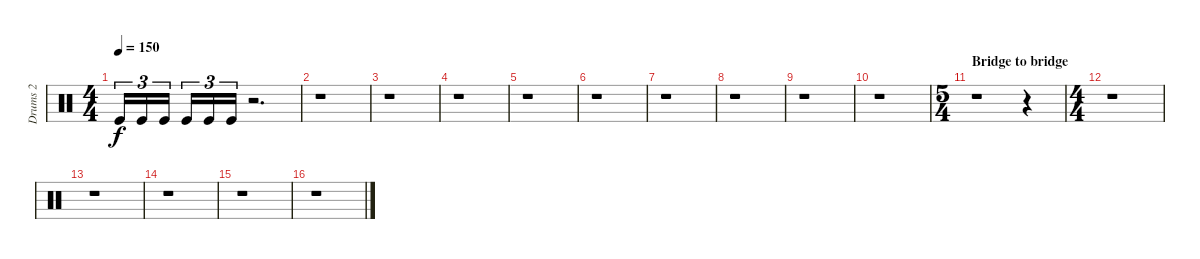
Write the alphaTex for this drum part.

\track ("Drums 2" "Drums 2") {instrument percussion}
\staff {score}
\articulation defaults
\ts (4 4)
\tempo 150
\clef neutral
\ks c "Kick (hit)".16{tu (3 2) dy f} "Kick (hit)".16{tu (3 2)} "Kick (hit)".16{tu (3 2)} "Kick (hit)".16{tu (3 2)} "Kick (hit)".16{tu (3 2)} "Kick (hit)".16{tu (3 2)}
r.2{d} |
r.1 |
r.1 |
r.1 |
r.1 |
r.1 |
r.1 |
r.1 |
r.1 |
r.1 |
\ts (5 4)
\section ("" "Bridge to bridge")
r.1 r.4 |
\ts (4 4)
r.1 |
r.1 |
r.1 |
r.1 |
r.1
